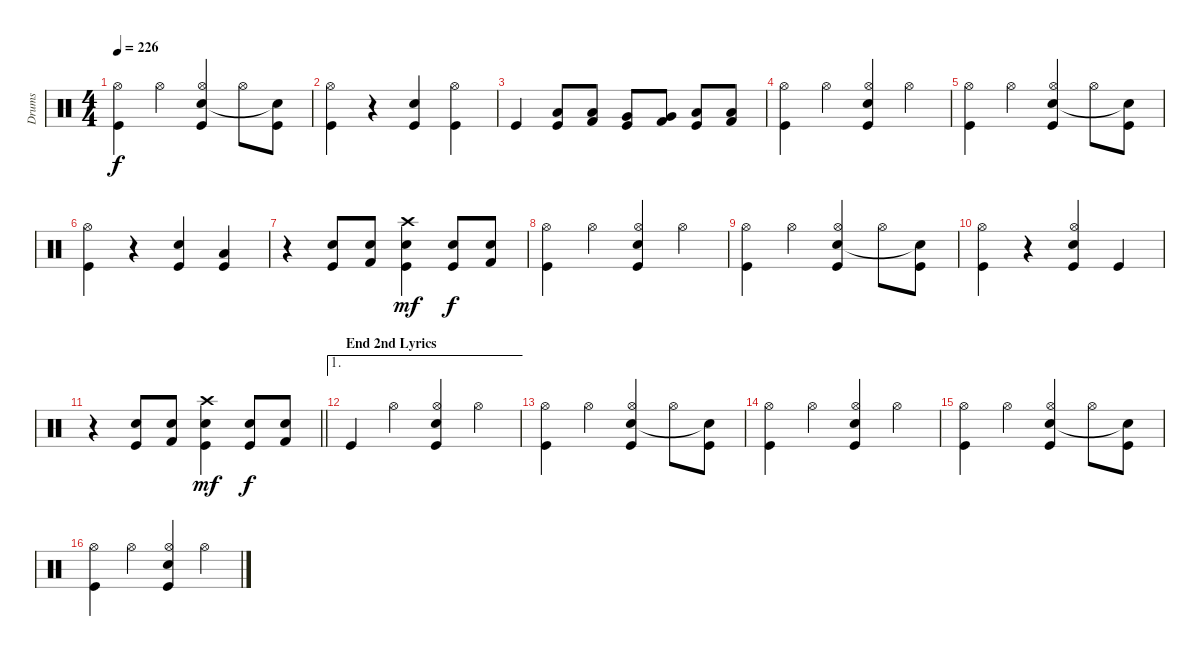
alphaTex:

\track ("Drums" "Drums") {instrument percussion}
\staff {score}
\articulation defaults
\ts (4 4)
\tempo 226
\clef neutral
\ks c
("Kick (hit)" "Hi-Hat (open)").4{dy f} "Hi-Hat (open)".4 ("Kick (hit)" "Snare (hit) 2" "Hi-Hat (open)").4 "Hi-Hat (open)".8 ("Kick (hit)" "Snare (hit)"{t}).8 |
("Kick (hit)" "Hi-Hat (open)").4 r.4 ("Kick (hit)" "Snare (hit) 2").4 ("Kick (hit)" "Hi-Hat (open)").4 |
"Kick (hit)".4 ("Kick (hit)" "Low Floor Tom (hit)").8 ("Kick (hit) 2" "Low Floor Tom (hit)").8 ("Kick (hit)" "Very Low Tom (hit)").8 ("Kick (hit) 2" "Very Low Tom (hit)").8 ("Kick (hit)" "Low Tom (hit)").8 ("Kick (hit) 2" "Low Tom (hit)").8 |
("Kick (hit)" "Hi-Hat (open)").4 "Hi-Hat (open)".4 ("Kick (hit)" "Snare (hit) 2" "Hi-Hat (open)").4 "Hi-Hat (open)".4 |
("Kick (hit)" "Hi-Hat (open)").4 "Hi-Hat (open)".4 ("Kick (hit)" "Snare (hit) 2" "Hi-Hat (open)").4 "Hi-Hat (open)".8 ("Kick (hit)" "Snare (hit)"{t}).8 |
("Kick (hit)" "Hi-Hat (open)").4 r.4 ("Kick (hit)" "Snare (hit) 2").4 ("Kick (hit)" "Low Floor Tom (hit)").4 |
r.4 ("Kick (hit)" "Snare (hit) 2").8 ("Kick (hit) 2" "Electric Snare (hit)").8 ("Kick (hit)" "Snare (hit) 2" "Crash high (hit)").4{dy mf} ("Kick (hit)" "Snare (hit) 2").8{dy f} ("Kick (hit) 2" "Electric Snare (hit)").8 |
("Kick (hit)" "Hi-Hat (open)").4 "Hi-Hat (open)".4 ("Kick (hit)" "Snare (hit) 2" "Hi-Hat (open)").4 "Hi-Hat (open)".4 |
("Kick (hit)" "Hi-Hat (open)").4 "Hi-Hat (open)".4 ("Kick (hit)" "Snare (hit) 2" "Hi-Hat (open)").4 "Hi-Hat (open)".8 ("Kick (hit)" "Snare (hit)"{t}).8 |
("Kick (hit)" "Hi-Hat (open)").4 r.4 ("Kick (hit)" "Snare (hit) 2" "Hi-Hat (open)").4 "Kick (hit)".4 |
\barLineRight lightlight
r.4 ("Kick (hit)" "Snare (hit) 2").8 ("Kick (hit) 2" "Electric Snare (hit)").8 ("Kick (hit)" "Snare (hit) 2" "Crash high (hit)").4{dy mf} ("Kick (hit)" "Snare (hit) 2").8{dy f} ("Kick (hit) 2" "Electric Snare (hit)").8 |
\ae 1
\section ("" "End 2nd Lyrics")
"Kick (hit)".4 "Hi-Hat (open)".4 ("Kick (hit)" "Snare (hit) 2" "Hi-Hat (open)").4 "Hi-Hat (open)".4 |
("Kick (hit)" "Hi-Hat (open)").4 "Hi-Hat (open)".4 ("Kick (hit)" "Snare (hit) 2" "Hi-Hat (open)").4 "Hi-Hat (open)".8 ("Kick (hit)" "Snare (hit)"{t}).8 |
("Kick (hit)" "Hi-Hat (open)").4 "Hi-Hat (open)".4 ("Kick (hit)" "Snare (hit) 2" "Hi-Hat (open)").4 "Hi-Hat (open)".4 |
("Kick (hit)" "Hi-Hat (open)").4 "Hi-Hat (open)".4 ("Kick (hit)" "Snare (hit) 2" "Hi-Hat (open)").4 "Hi-Hat (open)".8 ("Kick (hit)" "Snare (hit)"{t}).8 |
("Kick (hit)" "Hi-Hat (open)").4 "Hi-Hat (open)".4 ("Kick (hit)" "Snare (hit) 2" "Hi-Hat (open)").4 "Hi-Hat (open)".4
